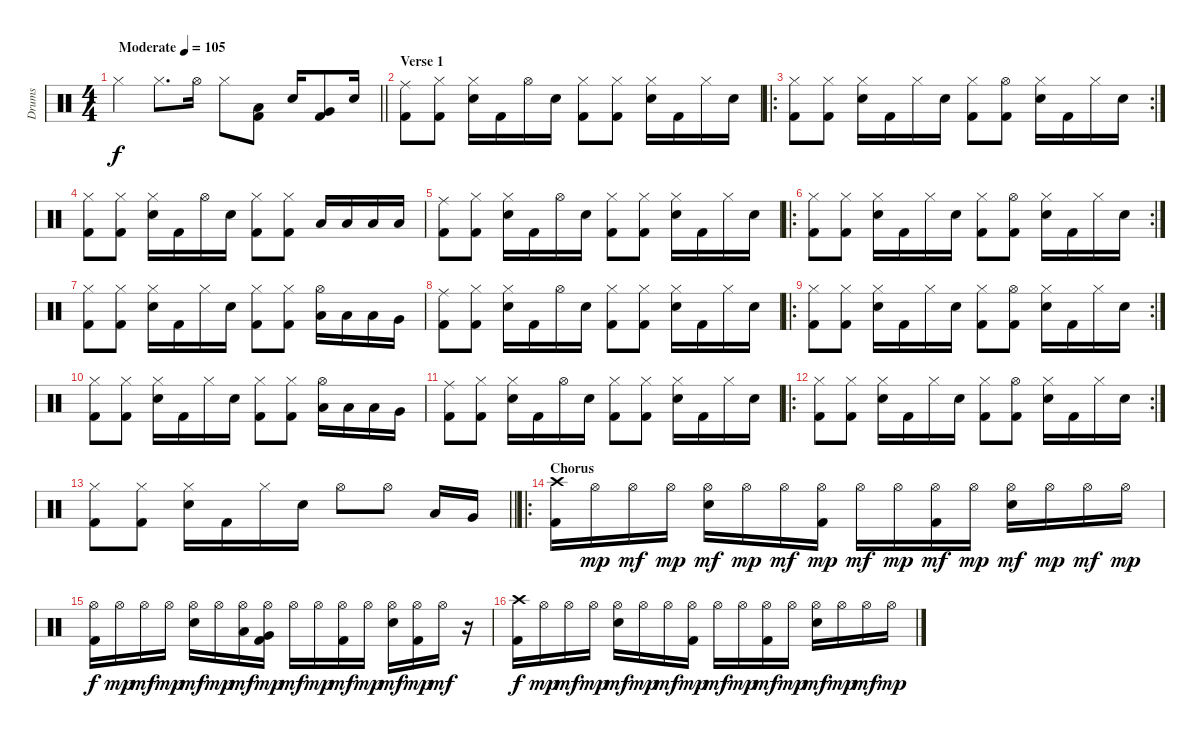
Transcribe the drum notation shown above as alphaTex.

\track ("Drums" "Drums") {instrument percussion}
\staff {score}
\articulation defaults
\ts (4 4)
\tempo (105 "Moderate")
\clef neutral
\barLineRight lightlight
\ks c "Hi-Hat (closed)".4{dy f} "Hi-Hat (closed)".8{d} "Hi-Hat (open)".16 "Hi-Hat (closed)".8
("Low Tom (hit)" "Kick (hit) 2").8 "Electric Snare (hit)".16 ("Very Low Tom (hit)" "Kick (hit) 2").8 "Electric Snare (hit)".16 |
\section ("" "Verse 1")
("Ride (middle)" "Kick (hit) 2").8 ("Hi-Hat (closed)" "Kick (hit) 2").8 ("Hi-Hat (closed)" "Electric Snare (hit)").16 "Kick (hit) 2".16 "Hi-Hat (open)".16 "Electric Snare (hit)".16 ("Kick (hit) 2" "Hi-Hat (closed)").8 ("Hi-Hat (closed)" "Kick (hit) 2").8 ("Electric Snare (hit)" "Hi-Hat (closed)").16 "Kick (hit) 2".16 "Hi-Hat (closed)".16 "Electric Snare (hit)".16 |
\ro
\rc 2
("Hi-Hat (closed)" "Kick (hit) 2").8 ("Hi-Hat (closed)" "Kick (hit) 2").8 ("Hi-Hat (closed)" "Electric Snare (hit)").16 "Kick (hit) 2".16 "Hi-Hat (closed)".16 "Electric Snare (hit)".16 ("Kick (hit) 2" "Hi-Hat (closed)").8 ("Kick (hit) 2" "Hi-Hat (open)").8 ("Electric Snare (hit)" "Hi-Hat (closed)").16 "Kick (hit) 2".16 "Hi-Hat (closed)".16 "Electric Snare (hit)".16 |
("Hi-Hat (closed)" "Kick (hit) 2").8 ("Hi-Hat (closed)" "Kick (hit) 2").8 ("Hi-Hat (closed)" "Electric Snare (hit)").16 "Kick (hit) 2".16 "Hi-Hat (open)".16 "Electric Snare (hit)".16 ("Kick (hit) 2" "Hi-Hat (closed)").8 ("Hi-Hat (closed)" "Kick (hit) 2").8 "Low Tom (hit)".16 "Low Tom (hit)".16 "Low Tom (hit)".16 "Low Tom (hit)".16 |
("Ride (middle)" "Kick (hit) 2").8 ("Hi-Hat (closed)" "Kick (hit) 2").8 ("Hi-Hat (closed)" "Electric Snare (hit)").16 "Kick (hit) 2".16 "Hi-Hat (open)".16 "Electric Snare (hit)".16 ("Kick (hit) 2" "Hi-Hat (closed)").8 ("Hi-Hat (closed)" "Kick (hit) 2").8 ("Electric Snare (hit)" "Hi-Hat (closed)").16 "Kick (hit) 2".16 "Hi-Hat (closed)".16 "Electric Snare (hit)".16 |
\ro
\rc 2
("Hi-Hat (closed)" "Kick (hit) 2").8 ("Hi-Hat (closed)" "Kick (hit) 2").8 ("Hi-Hat (closed)" "Electric Snare (hit)").16 "Kick (hit) 2".16 "Hi-Hat (closed)".16 "Electric Snare (hit)".16 ("Kick (hit) 2" "Hi-Hat (closed)").8 ("Kick (hit) 2" "Hi-Hat (open)").8 ("Electric Snare (hit)" "Hi-Hat (closed)").16 "Kick (hit) 2".16 "Hi-Hat (closed)".16 "Electric Snare (hit)".16 |
("Hi-Hat (closed)" "Kick (hit) 2").8 ("Hi-Hat (closed)" "Kick (hit) 2").8 ("Hi-Hat (closed)" "Electric Snare (hit)").16 "Kick (hit) 2".16 "Hi-Hat (closed)".16 "Electric Snare (hit)".16 ("Kick (hit) 2" "Hi-Hat (closed)").8 ("Hi-Hat (closed)" "Kick (hit) 2").8 ("Low Tom (hit)" "Hi-Hat (open)").16 "Low Tom (hit)".16 "Low Tom (hit)".16 "Very Low Tom (hit)".16 |
("Ride (middle)" "Kick (hit) 2").8 ("Hi-Hat (closed)" "Kick (hit) 2").8 ("Hi-Hat (closed)" "Electric Snare (hit)").16 "Kick (hit) 2".16 "Hi-Hat (open)".16 "Electric Snare (hit)".16 ("Kick (hit) 2" "Hi-Hat (closed)").8 ("Hi-Hat (closed)" "Kick (hit) 2").8 ("Electric Snare (hit)" "Hi-Hat (closed)").16 "Kick (hit) 2".16 "Hi-Hat (closed)".16 "Electric Snare (hit)".16 |
\ro
\rc 2
("Hi-Hat (closed)" "Kick (hit) 2").8 ("Hi-Hat (closed)" "Kick (hit) 2").8 ("Hi-Hat (closed)" "Electric Snare (hit)").16 "Kick (hit) 2".16 "Hi-Hat (closed)".16 "Electric Snare (hit)".16 ("Kick (hit) 2" "Hi-Hat (closed)").8 ("Kick (hit) 2" "Hi-Hat (open)").8 ("Electric Snare (hit)" "Hi-Hat (closed)").16 "Kick (hit) 2".16 "Hi-Hat (closed)".16 "Electric Snare (hit)".16 |
("Hi-Hat (closed)" "Kick (hit) 2").8 ("Hi-Hat (closed)" "Kick (hit) 2").8 ("Hi-Hat (closed)" "Electric Snare (hit)").16 "Kick (hit) 2".16 "Hi-Hat (closed)".16 "Electric Snare (hit)".16 ("Kick (hit) 2" "Hi-Hat (closed)").8 ("Hi-Hat (closed)" "Kick (hit) 2").8 ("Low Tom (hit)" "Hi-Hat (open)").16 "Low Tom (hit)".16 "Low Tom (hit)".16 "Very Low Tom (hit)".16 |
("Ride (middle)" "Kick (hit) 2").8 ("Hi-Hat (closed)" "Kick (hit) 2").8 ("Hi-Hat (closed)" "Electric Snare (hit)").16 "Kick (hit) 2".16 "Hi-Hat (open)".16 "Electric Snare (hit)".16 ("Kick (hit) 2" "Hi-Hat (closed)").8 ("Hi-Hat (closed)" "Kick (hit) 2").8 ("Electric Snare (hit)" "Hi-Hat (closed)").16 "Kick (hit) 2".16 "Hi-Hat (closed)".16 "Electric Snare (hit)".16 |
\ro
\rc 2
("Hi-Hat (closed)" "Kick (hit) 2").8 ("Hi-Hat (closed)" "Kick (hit) 2").8 ("Hi-Hat (closed)" "Electric Snare (hit)").16 "Kick (hit) 2".16 "Hi-Hat (closed)".16 "Electric Snare (hit)".16 ("Kick (hit) 2" "Hi-Hat (closed)").8 ("Kick (hit) 2" "Hi-Hat (open)").8 ("Electric Snare (hit)" "Hi-Hat (closed)").16 "Kick (hit) 2".16 "Hi-Hat (closed)".16 "Electric Snare (hit)".16 |
\barLineRight lightlight
("Hi-Hat (closed)" "Kick (hit) 2").8 ("Hi-Hat (closed)" "Kick (hit) 2").8 ("Hi-Hat (closed)" "Electric Snare (hit)").16 "Kick (hit) 2".16 "Hi-Hat (closed)".16 "Electric Snare (hit)".16 "Hi-Hat (open)".8 "Hi-Hat (open)".8 "Low Tom (hit)".16 "Very Low Tom (hit)".16 |
\ro
\section ("" "Chorus")
("Crash high (hit)" "Kick (hit) 2").16 "Hi-Hat (open)".16{dy mp} "Hi-Hat (open)".16{dy mf} "Hi-Hat (open)".16{dy mp} ("Hi-Hat (open)" "Electric Snare (hit)").16{dy mf} "Hi-Hat (open)".16{dy mp} "Hi-Hat (open)".16{dy mf} ("Hi-Hat (open)" "Kick (hit) 2").16{dy mp} "Hi-Hat (open)".16{dy mf} "Hi-Hat (open)".16{dy mp} ("Hi-Hat (open)" "Kick (hit) 2").16{dy mf} "Hi-Hat (open)".16{dy mp} ("Hi-Hat (open)" "Electric Snare (hit)").16{dy mf} "Hi-Hat (open)".16{dy mp} "Hi-Hat (open)".16{dy mf} "Hi-Hat (open)".16{dy mp} |
("Hi-Hat (open)" "Kick (hit) 2").16{dy f} "Hi-Hat (open)".16{dy mp} "Hi-Hat (open)".16{dy mf} "Hi-Hat (open)".16{dy mp} ("Hi-Hat (open)" "Electric Snare (hit)").16{dy mf} "Hi-Hat (open)".16{dy mp} ("Hi-Hat (open)" "Low Tom (hit)").16{dy mf} ("Hi-Hat (open)" "Kick (hit) 2" "Very Low Tom (hit)").16{dy mp} "Hi-Hat (open)".16{dy mf} "Hi-Hat (open)".16{dy mp} ("Hi-Hat (open)" "Kick (hit) 2").16{dy mf} "Hi-Hat (open)".16{dy mp} ("Hi-Hat (open)" "Electric Snare (hit)").16{dy mf} ("Hi-Hat (open)" "Kick (hit) 2").16{dy mp} "Hi-Hat (open)".16{dy mf} r.16 |
("Crash high (hit)" "Kick (hit) 2").16{dy f} "Hi-Hat (open)".16{dy mp} "Hi-Hat (open)".16{dy mf} "Hi-Hat (open)".16{dy mp} ("Hi-Hat (open)" "Electric Snare (hit)").16{dy mf} "Hi-Hat (open)".16{dy mp} "Hi-Hat (open)".16{dy mf} ("Hi-Hat (open)" "Kick (hit) 2").16{dy mp} "Hi-Hat (open)".16{dy mf} "Hi-Hat (open)".16{dy mp} ("Hi-Hat (open)" "Kick (hit) 2").16{dy mf} "Hi-Hat (open)".16{dy mp} ("Hi-Hat (open)" "Electric Snare (hit)").16{dy mf} "Hi-Hat (open)".16{dy mp} "Hi-Hat (open)".16{dy mf} "Hi-Hat (open)".16{dy mp}
